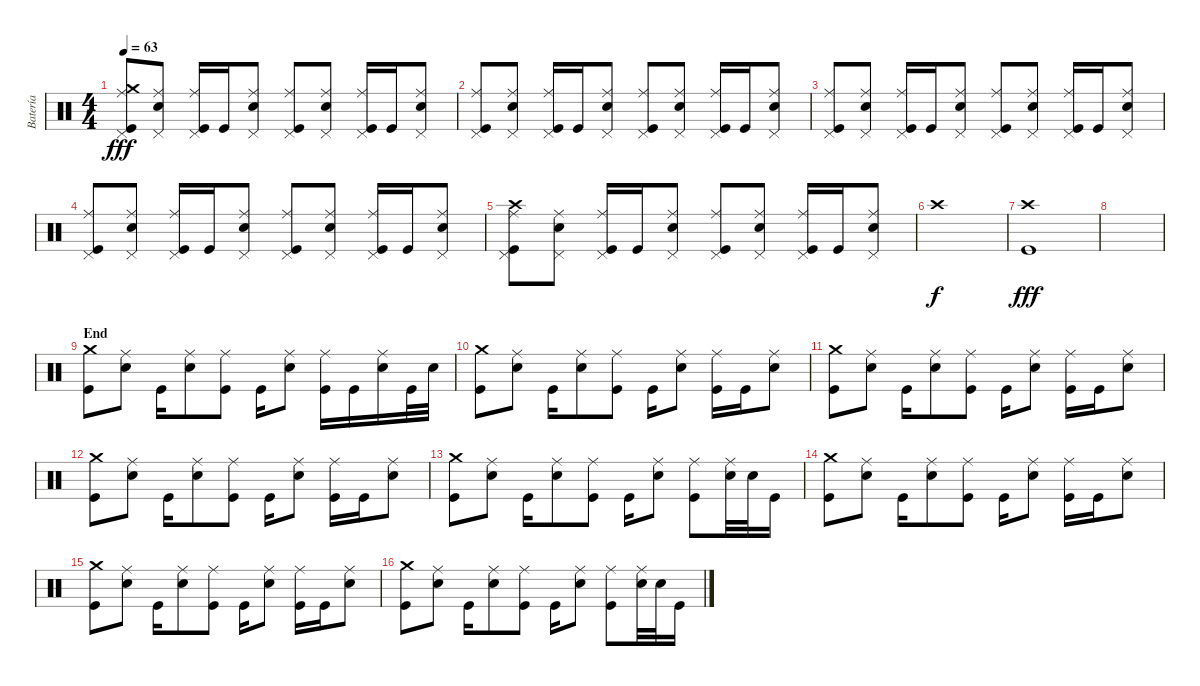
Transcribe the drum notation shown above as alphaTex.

\track ("Batería" "Batería") {instrument percussion}
\staff {score}
\articulation defaults
\ts (4 4)
\tempo 63
\clef neutral
\ks c
("Pedal Hi-Hat (hit)" "Kick (hit)" "Crash medium (hit)" "Ride (middle)").8{dy fff} ("Pedal Hi-Hat (hit)" "Electric Snare (hit)" "Ride (middle)").8 ("Pedal Hi-Hat (hit)" "Kick (hit)" "Ride (middle)").16 "Kick (hit)".16 ("Pedal Hi-Hat (hit)" "Electric Snare (hit)" "Ride (middle)").8 ("Pedal Hi-Hat (hit)" "Kick (hit)" "Ride (middle)").8 ("Pedal Hi-Hat (hit)" "Electric Snare (hit)" "Ride (middle)").8 ("Pedal Hi-Hat (hit)" "Kick (hit)" "Ride (middle)").16 "Kick (hit)".16 ("Pedal Hi-Hat (hit)" "Electric Snare (hit)" "Ride (middle)").8 |
("Pedal Hi-Hat (hit)" "Kick (hit)" "Ride (middle)").8 ("Pedal Hi-Hat (hit)" "Electric Snare (hit)" "Ride (middle)").8 ("Pedal Hi-Hat (hit)" "Kick (hit)" "Ride (middle)").16 "Kick (hit)".16 ("Pedal Hi-Hat (hit)" "Electric Snare (hit)" "Ride (middle)").8 ("Pedal Hi-Hat (hit)" "Kick (hit)" "Ride (middle)").8 ("Pedal Hi-Hat (hit)" "Electric Snare (hit)" "Ride (middle)").8 ("Pedal Hi-Hat (hit)" "Kick (hit)" "Ride (middle)").16 "Kick (hit)".16 ("Pedal Hi-Hat (hit)" "Electric Snare (hit)" "Ride (middle)").8 |
("Pedal Hi-Hat (hit)" "Kick (hit)" "Ride (middle)").8 ("Pedal Hi-Hat (hit)" "Electric Snare (hit)" "Ride (middle)").8 ("Pedal Hi-Hat (hit)" "Kick (hit)" "Ride (middle)").16 "Kick (hit)".16 ("Pedal Hi-Hat (hit)" "Electric Snare (hit)" "Ride (middle)").8 ("Pedal Hi-Hat (hit)" "Kick (hit)" "Ride (middle)").8 ("Pedal Hi-Hat (hit)" "Electric Snare (hit)" "Ride (middle)").8 ("Pedal Hi-Hat (hit)" "Kick (hit)" "Ride (middle)").16 "Kick (hit)".16 ("Pedal Hi-Hat (hit)" "Electric Snare (hit)" "Ride (middle)").8 |
("Pedal Hi-Hat (hit)" "Kick (hit)" "Ride (middle)").8 ("Pedal Hi-Hat (hit)" "Electric Snare (hit)" "Ride (middle)").8 ("Pedal Hi-Hat (hit)" "Kick (hit)" "Ride (middle)").16 "Kick (hit)".16 ("Pedal Hi-Hat (hit)" "Electric Snare (hit)" "Ride (middle)").8 ("Pedal Hi-Hat (hit)" "Kick (hit)" "Ride (middle)").8 ("Pedal Hi-Hat (hit)" "Electric Snare (hit)" "Ride (middle)").8 ("Pedal Hi-Hat (hit)" "Kick (hit)" "Ride (middle)").16 "Kick (hit)".16 ("Pedal Hi-Hat (hit)" "Electric Snare (hit)" "Ride (middle)").8 |
("Pedal Hi-Hat (hit)" "Kick (hit)" "Crash high (hit)" "Ride (middle)").8 ("Pedal Hi-Hat (hit)" "Electric Snare (hit)" "Ride (middle)").8 ("Pedal Hi-Hat (hit)" "Kick (hit)" "Ride (middle)").16 "Kick (hit)".16 ("Pedal Hi-Hat (hit)" "Electric Snare (hit)" "Ride (middle)").8 ("Pedal Hi-Hat (hit)" "Kick (hit)" "Ride (middle)").8 ("Pedal Hi-Hat (hit)" "Electric Snare (hit)" "Ride (middle)").8 ("Pedal Hi-Hat (hit)" "Kick (hit)" "Ride (middle)").16 "Kick (hit)".16 ("Pedal Hi-Hat (hit)" "Electric Snare (hit)" "Ride (middle)").8 |
"Crash high (hit)".1{dy f} |
("Kick (hit)" "Crash high (hit)").1{dy fff} |
|
\section ("" "End")
("Kick (hit)" "Crash medium (hit)").8 ("Electric Snare (hit)" "Ride (middle)").8 "Kick (hit)".16 ("Electric Snare (hit)" "Ride (middle)").8 ("Kick (hit)" "Ride (middle)").8 "Kick (hit)".16 ("Electric Snare (hit)" "Ride (middle)").8 ("Kick (hit)" "Ride (middle)").16 "Kick (hit)".16 ("Electric Snare (hit)" "Ride (middle)").16 "Kick (hit)".32 "Electric Snare (hit)".32 |
("Kick (hit)" "Crash medium (hit)").8 ("Electric Snare (hit)" "Ride (middle)").8 "Kick (hit)".16 ("Electric Snare (hit)" "Ride (middle)").8 ("Kick (hit)" "Ride (middle)").8 "Kick (hit)".16 ("Electric Snare (hit)" "Ride (middle)").8 ("Kick (hit)" "Ride (middle)").16 "Kick (hit)".16 ("Electric Snare (hit)" "Ride (middle)").8 |
("Kick (hit)" "Crash medium (hit)").8 ("Electric Snare (hit)" "Ride (middle)").8 "Kick (hit)".16 ("Electric Snare (hit)" "Ride (middle)").8 ("Kick (hit)" "Ride (middle)").8 "Kick (hit)".16 ("Electric Snare (hit)" "Ride (middle)").8 ("Kick (hit)" "Ride (middle)").16 "Kick (hit)".16 ("Electric Snare (hit)" "Ride (middle)").8 |
("Kick (hit)" "Crash medium (hit)").8 ("Electric Snare (hit)" "Ride (middle)").8 "Kick (hit)".16 ("Electric Snare (hit)" "Ride (middle)").8 ("Kick (hit)" "Ride (middle)").8 "Kick (hit)".16 ("Electric Snare (hit)" "Ride (middle)").8 ("Kick (hit)" "Ride (middle)").16 "Kick (hit)".16 ("Electric Snare (hit)" "Ride (middle)").8 |
("Kick (hit)" "Crash medium (hit)").8 ("Electric Snare (hit)" "Ride (middle)").8 "Kick (hit)".16 ("Electric Snare (hit)" "Ride (middle)").8 ("Kick (hit)" "Ride (middle)").8 "Kick (hit)".16 ("Electric Snare (hit)" "Ride (middle)").8 ("Kick (hit)" "Ride (middle)").8 ("Electric Snare (hit)" "Ride (middle)").32 "Electric Snare (hit)".32 "Kick (hit)".16 |
("Kick (hit)" "Crash medium (hit)").8 ("Electric Snare (hit)" "Ride (middle)").8 "Kick (hit)".16 ("Electric Snare (hit)" "Ride (middle)").8 ("Kick (hit)" "Ride (middle)").8 "Kick (hit)".16 ("Electric Snare (hit)" "Ride (middle)").8 ("Kick (hit)" "Ride (middle)").16 "Kick (hit)".16 ("Electric Snare (hit)" "Ride (middle)").8 |
("Kick (hit)" "Crash medium (hit)").8 ("Electric Snare (hit)" "Ride (middle)").8 "Kick (hit)".16 ("Electric Snare (hit)" "Ride (middle)").8 ("Kick (hit)" "Ride (middle)").8 "Kick (hit)".16 ("Electric Snare (hit)" "Ride (middle)").8 ("Kick (hit)" "Ride (middle)").16 "Kick (hit)".16 ("Electric Snare (hit)" "Ride (middle)").8 |
("Kick (hit)" "Crash medium (hit)").8 ("Electric Snare (hit)" "Ride (middle)").8 "Kick (hit)".16 ("Electric Snare (hit)" "Ride (middle)").8 ("Kick (hit)" "Ride (middle)").8 "Kick (hit)".16 ("Electric Snare (hit)" "Ride (middle)").8 ("Kick (hit)" "Ride (middle)").8 ("Electric Snare (hit)" "Ride (middle)").32 "Electric Snare (hit)".32 "Kick (hit)".16
